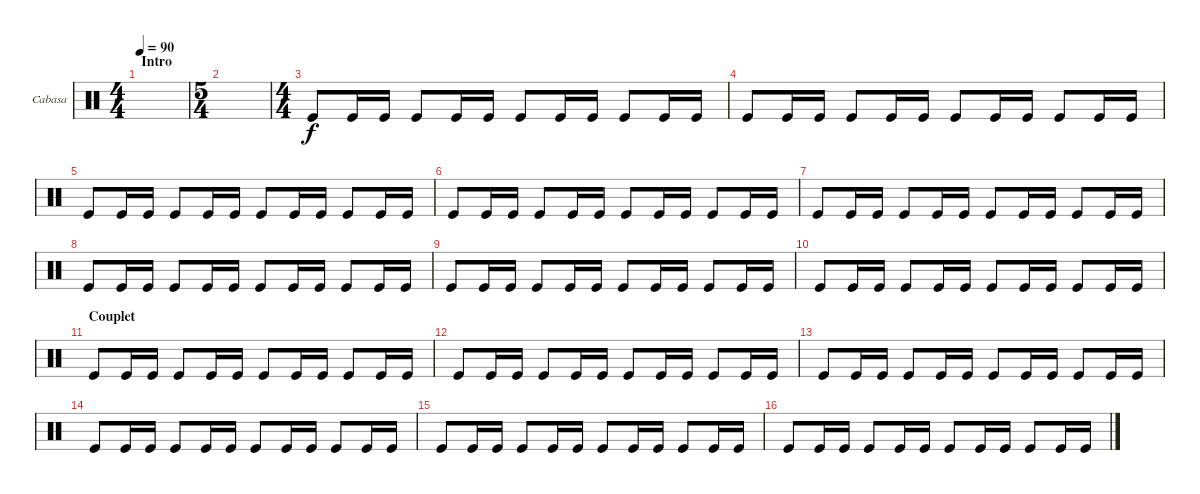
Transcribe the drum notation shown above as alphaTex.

\defaultSystemsLayout 4
\bracketExtendMode groupsimilarinstruments
\firstSystemTrackNameOrientation horizontal
\otherSystemsTrackNameOrientation horizontal
\track ("Cabasa" "Cabasa") {instrument percussion}
\staff {score}
\articulation defaults
\ts (4 4)
\section ("" "Intro")
\tempo 90
\clef neutral
\scale
0.474178
\ks c
|
\ts (5 4)
\scale
0.262911 |
\ts (4 4)
\scale
0.262911 "Kick (hit)".8 "Kick (hit)".16 "Kick (hit)".16 "Kick (hit)".8 "Kick (hit)".16 "Kick (hit)".16 "Kick (hit)".8 "Kick (hit)".16 "Kick (hit)".16 "Kick (hit)".8 "Kick (hit)".16 "Kick (hit)".16 |
\scale
0.333333 "Kick (hit)".8 "Kick (hit)".16 "Kick (hit)".16 "Kick (hit)".8 "Kick (hit)".16 "Kick (hit)".16 "Kick (hit)".8 "Kick (hit)".16 "Kick (hit)".16 "Kick (hit)".8 "Kick (hit)".16 "Kick (hit)".16 |
\scale
0.333333 "Kick (hit)".8 "Kick (hit)".16 "Kick (hit)".16 "Kick (hit)".8 "Kick (hit)".16 "Kick (hit)".16 "Kick (hit)".8 "Kick (hit)".16 "Kick (hit)".16 "Kick (hit)".8 "Kick (hit)".16 "Kick (hit)".16 |
\scale
0.333333 "Kick (hit)".8 "Kick (hit)".16 "Kick (hit)".16 "Kick (hit)".8 "Kick (hit)".16 "Kick (hit)".16 "Kick (hit)".8 "Kick (hit)".16 "Kick (hit)".16 "Kick (hit)".8 "Kick (hit)".16 "Kick (hit)".16 |
\scale
0.333333 "Kick (hit)".8 "Kick (hit)".16 "Kick (hit)".16 "Kick (hit)".8 "Kick (hit)".16 "Kick (hit)".16 "Kick (hit)".8 "Kick (hit)".16 "Kick (hit)".16 "Kick (hit)".8 "Kick (hit)".16 "Kick (hit)".16 |
\scale
0.333333 "Kick (hit)".8 "Kick (hit)".16 "Kick (hit)".16 "Kick (hit)".8 "Kick (hit)".16 "Kick (hit)".16 "Kick (hit)".8 "Kick (hit)".16 "Kick (hit)".16 "Kick (hit)".8 "Kick (hit)".16 "Kick (hit)".16 |
\scale
0.333333 "Kick (hit)".8 "Kick (hit)".16 "Kick (hit)".16 "Kick (hit)".8 "Kick (hit)".16 "Kick (hit)".16 "Kick (hit)".8 "Kick (hit)".16 "Kick (hit)".16 "Kick (hit)".8 "Kick (hit)".16 "Kick (hit)".16 |
\scale
0.333333 "Kick (hit)".8 "Kick (hit)".16 "Kick (hit)".16 "Kick (hit)".8 "Kick (hit)".16 "Kick (hit)".16 "Kick (hit)".8 "Kick (hit)".16 "Kick (hit)".16 "Kick (hit)".8 "Kick (hit)".16 "Kick (hit)".16 |
\section ("" "Couplet")
\scale
0.333333 "Kick (hit)".8 "Kick (hit)".16 "Kick (hit)".16 "Kick (hit)".8 "Kick (hit)".16 "Kick (hit)".16 "Kick (hit)".8 "Kick (hit)".16 "Kick (hit)".16 "Kick (hit)".8 "Kick (hit)".16 "Kick (hit)".16 |
\scale
0.333333 "Kick (hit)".8 "Kick (hit)".16 "Kick (hit)".16 "Kick (hit)".8 "Kick (hit)".16 "Kick (hit)".16 "Kick (hit)".8 "Kick (hit)".16 "Kick (hit)".16 "Kick (hit)".8 "Kick (hit)".16 "Kick (hit)".16 |
\scale
0.333333 "Kick (hit)".8 "Kick (hit)".16 "Kick (hit)".16 "Kick (hit)".8 "Kick (hit)".16 "Kick (hit)".16 "Kick (hit)".8 "Kick (hit)".16 "Kick (hit)".16 "Kick (hit)".8 "Kick (hit)".16 "Kick (hit)".16 |
\scale
0.333333 "Kick (hit)".8 "Kick (hit)".16 "Kick (hit)".16 "Kick (hit)".8 "Kick (hit)".16 "Kick (hit)".16 "Kick (hit)".8 "Kick (hit)".16 "Kick (hit)".16 "Kick (hit)".8 "Kick (hit)".16 "Kick (hit)".16 |
\scale
0.333333 "Kick (hit)".8 "Kick (hit)".16 "Kick (hit)".16 "Kick (hit)".8 "Kick (hit)".16 "Kick (hit)".16 "Kick (hit)".8 "Kick (hit)".16 "Kick (hit)".16 "Kick (hit)".8 "Kick (hit)".16 "Kick (hit)".16 |
\scale
0.333333 "Kick (hit)".8 "Kick (hit)".16 "Kick (hit)".16 "Kick (hit)".8 "Kick (hit)".16 "Kick (hit)".16 "Kick (hit)".8 "Kick (hit)".16 "Kick (hit)".16 "Kick (hit)".8 "Kick (hit)".16 "Kick (hit)".16
